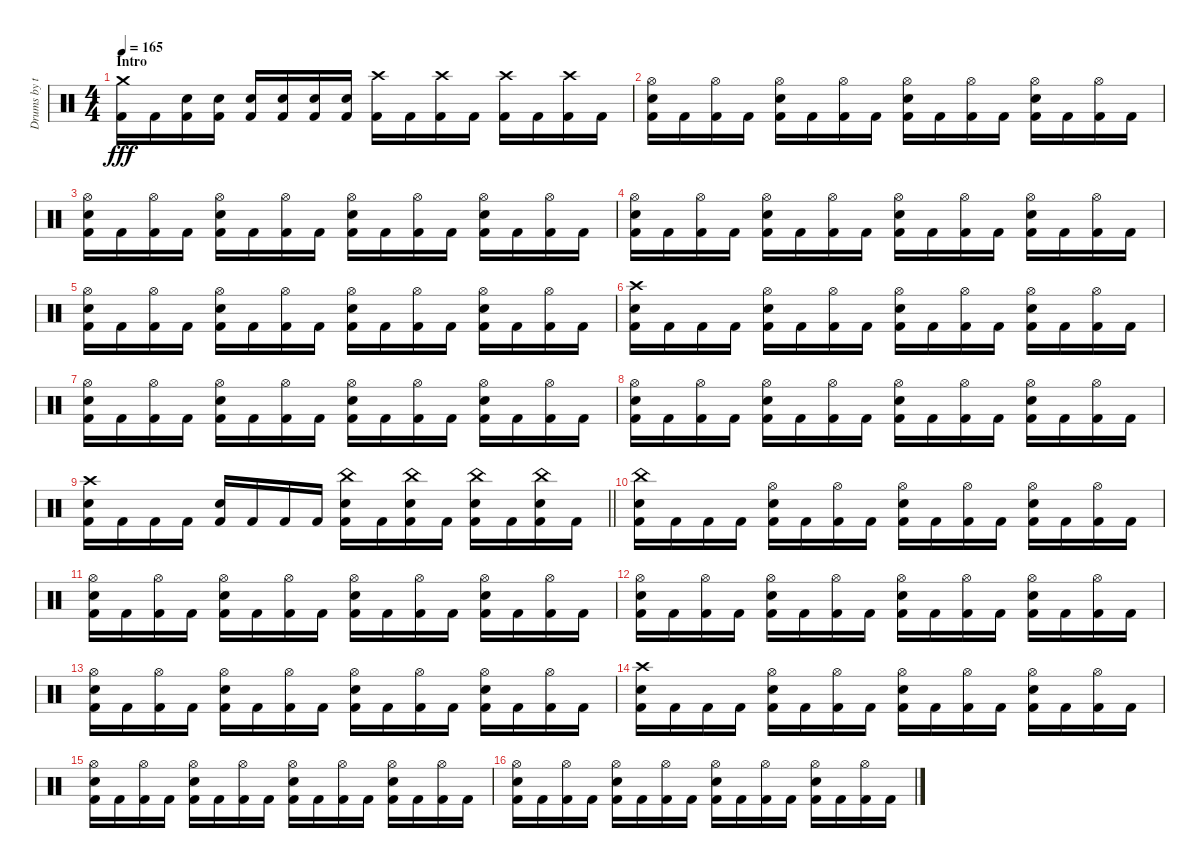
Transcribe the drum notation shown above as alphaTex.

\track ("Drums by terryn0" "Drums by t") {instrument percussion}
\staff {score}
\articulation defaults
\ts (4 4)
\section ("" "Intro")
\tempo 165
\clef neutral
\ks c
("Crash medium (hit)" "Kick (hit) 2").16{dy fff} "Kick (hit) 2".16 ("Electric Snare (hit)" "Kick (hit) 2").16 ("Electric Snare (hit)" "Kick (hit) 2").16 ("Electric Snare (hit)" "Kick (hit) 2").16 ("Electric Snare (hit)" "Kick (hit) 2").16 ("Electric Snare (hit)" "Kick (hit) 2").16 ("Electric Snare (hit)" "Kick (hit) 2").16 ("Crash high (hit)" "Kick (hit) 2").16 "Kick (hit) 2".16 ("Crash high (hit)" "Kick (hit) 2").16 "Kick (hit) 2".16 ("Crash high (hit)" "Kick (hit) 2").16 "Kick (hit) 2".16 ("Crash high (hit)" "Kick (hit) 2").16 "Kick (hit) 2".16 |
("Hi-Hat (open)" "Electric Snare (hit)" "Kick (hit) 2").16 "Kick (hit) 2".16 ("Hi-Hat (open)" "Kick (hit) 2").16 "Kick (hit) 2".16 ("Hi-Hat (open)" "Electric Snare (hit)" "Kick (hit) 2").16 "Kick (hit) 2".16 ("Hi-Hat (open)" "Kick (hit) 2").16 "Kick (hit) 2".16 ("Hi-Hat (open)" "Electric Snare (hit)" "Kick (hit) 2").16 "Kick (hit) 2".16 ("Hi-Hat (open)" "Kick (hit) 2").16 "Kick (hit) 2".16 ("Hi-Hat (open)" "Electric Snare (hit)" "Kick (hit) 2").16 "Kick (hit) 2".16 ("Hi-Hat (open)" "Kick (hit) 2").16 "Kick (hit) 2".16 |
("Hi-Hat (open)" "Electric Snare (hit)" "Kick (hit) 2").16 "Kick (hit) 2".16 ("Hi-Hat (open)" "Kick (hit) 2").16 "Kick (hit) 2".16 ("Hi-Hat (open)" "Electric Snare (hit)" "Kick (hit) 2").16 "Kick (hit) 2".16 ("Hi-Hat (open)" "Kick (hit) 2").16 "Kick (hit) 2".16 ("Hi-Hat (open)" "Electric Snare (hit)" "Kick (hit) 2").16 "Kick (hit) 2".16 ("Hi-Hat (open)" "Kick (hit) 2").16 "Kick (hit) 2".16 ("Hi-Hat (open)" "Electric Snare (hit)" "Kick (hit) 2").16 "Kick (hit) 2".16 ("Hi-Hat (open)" "Kick (hit) 2").16 "Kick (hit) 2".16 |
("Hi-Hat (open)" "Electric Snare (hit)" "Kick (hit) 2").16 "Kick (hit) 2".16 ("Hi-Hat (open)" "Kick (hit) 2").16 "Kick (hit) 2".16 ("Hi-Hat (open)" "Electric Snare (hit)" "Kick (hit) 2").16 "Kick (hit) 2".16 ("Hi-Hat (open)" "Kick (hit) 2").16 "Kick (hit) 2".16 ("Hi-Hat (open)" "Electric Snare (hit)" "Kick (hit) 2").16 "Kick (hit) 2".16 ("Hi-Hat (open)" "Kick (hit) 2").16 "Kick (hit) 2".16 ("Hi-Hat (open)" "Electric Snare (hit)" "Kick (hit) 2").16 "Kick (hit) 2".16 ("Hi-Hat (open)" "Kick (hit) 2").16 "Kick (hit) 2".16 |
("Hi-Hat (open)" "Electric Snare (hit)" "Kick (hit) 2").16 "Kick (hit) 2".16 ("Hi-Hat (open)" "Kick (hit) 2").16 "Kick (hit) 2".16 ("Hi-Hat (open)" "Electric Snare (hit)" "Kick (hit) 2").16 "Kick (hit) 2".16 ("Hi-Hat (open)" "Kick (hit) 2").16 "Kick (hit) 2".16 ("Hi-Hat (open)" "Electric Snare (hit)" "Kick (hit) 2").16 "Kick (hit) 2".16 ("Hi-Hat (open)" "Kick (hit) 2").16 "Kick (hit) 2".16 ("Hi-Hat (open)" "Electric Snare (hit)" "Kick (hit) 2").16 "Kick (hit) 2".16 ("Hi-Hat (open)" "Kick (hit) 2").16 "Kick (hit) 2".16 |
("Crash high (hit)" "Electric Snare (hit)" "Kick (hit) 2").16 "Kick (hit) 2".16 "Kick (hit) 2".16 "Kick (hit) 2".16 ("Hi-Hat (open)" "Electric Snare (hit)" "Kick (hit) 2").16 "Kick (hit) 2".16 ("Hi-Hat (open)" "Kick (hit) 2").16 "Kick (hit) 2".16 ("Hi-Hat (open)" "Electric Snare (hit)" "Kick (hit) 2").16 "Kick (hit) 2".16 ("Hi-Hat (open)" "Kick (hit) 2").16 "Kick (hit) 2".16 ("Hi-Hat (open)" "Electric Snare (hit)" "Kick (hit) 2").16 "Kick (hit) 2".16 ("Hi-Hat (open)" "Kick (hit) 2").16 "Kick (hit) 2".16 |
("Hi-Hat (open)" "Electric Snare (hit)" "Kick (hit) 2").16 "Kick (hit) 2".16 ("Hi-Hat (open)" "Kick (hit) 2").16 "Kick (hit) 2".16 ("Hi-Hat (open)" "Electric Snare (hit)" "Kick (hit) 2").16 "Kick (hit) 2".16 ("Hi-Hat (open)" "Kick (hit) 2").16 "Kick (hit) 2".16 ("Hi-Hat (open)" "Electric Snare (hit)" "Kick (hit) 2").16 "Kick (hit) 2".16 ("Hi-Hat (open)" "Kick (hit) 2").16 "Kick (hit) 2".16 ("Hi-Hat (open)" "Electric Snare (hit)" "Kick (hit) 2").16 "Kick (hit) 2".16 ("Hi-Hat (open)" "Kick (hit) 2").16 "Kick (hit) 2".16 |
("Hi-Hat (open)" "Electric Snare (hit)" "Kick (hit) 2").16 "Kick (hit) 2".16 ("Hi-Hat (open)" "Kick (hit) 2").16 "Kick (hit) 2".16 ("Hi-Hat (open)" "Electric Snare (hit)" "Kick (hit) 2").16 "Kick (hit) 2".16 ("Hi-Hat (open)" "Kick (hit) 2").16 "Kick (hit) 2".16 ("Hi-Hat (open)" "Electric Snare (hit)" "Kick (hit) 2").16 "Kick (hit) 2".16 ("Hi-Hat (open)" "Kick (hit) 2").16 "Kick (hit) 2".16 ("Hi-Hat (open)" "Electric Snare (hit)" "Kick (hit) 2").16 "Kick (hit) 2".16 ("Hi-Hat (open)" "Kick (hit) 2").16 "Kick (hit) 2".16 |
\barLineRight lightlight
("Crash high (hit)" "Electric Snare (hit)" "Kick (hit) 2").16 "Kick (hit) 2".16 "Kick (hit) 2".16 "Kick (hit) 2".16 ("Electric Snare (hit)" "Kick (hit) 2").16 "Kick (hit) 2".16 "Kick (hit) 2".16 "Kick (hit) 2".16 ("China (hit)" "Electric Snare (hit)" "Kick (hit) 2").16 "Kick (hit) 2".16 ("China (hit)" "Electric Snare (hit)" "Kick (hit) 2").16 "Kick (hit) 2".16 ("China (hit)" "Electric Snare (hit)" "Kick (hit) 2").16 "Kick (hit) 2".16 ("China (hit)" "Electric Snare (hit)" "Kick (hit) 2").16 "Kick (hit) 2".16 |
("China (hit)" "Electric Snare (hit)" "Kick (hit) 2").16 "Kick (hit) 2".16 "Kick (hit) 2".16 "Kick (hit) 2".16 ("Hi-Hat (open)" "Electric Snare (hit)" "Kick (hit) 2").16 "Kick (hit) 2".16 ("Hi-Hat (open)" "Kick (hit) 2").16 "Kick (hit) 2".16 ("Hi-Hat (open)" "Electric Snare (hit)" "Kick (hit) 2").16 "Kick (hit) 2".16 ("Hi-Hat (open)" "Kick (hit) 2").16 "Kick (hit) 2".16 ("Hi-Hat (open)" "Electric Snare (hit)" "Kick (hit) 2").16 "Kick (hit) 2".16 ("Hi-Hat (open)" "Kick (hit) 2").16 "Kick (hit) 2".16 |
("Hi-Hat (open)" "Electric Snare (hit)" "Kick (hit) 2").16 "Kick (hit) 2".16 ("Hi-Hat (open)" "Kick (hit) 2").16 "Kick (hit) 2".16 ("Hi-Hat (open)" "Electric Snare (hit)" "Kick (hit) 2").16 "Kick (hit) 2".16 ("Hi-Hat (open)" "Kick (hit) 2").16 "Kick (hit) 2".16 ("Hi-Hat (open)" "Electric Snare (hit)" "Kick (hit) 2").16 "Kick (hit) 2".16 ("Hi-Hat (open)" "Kick (hit) 2").16 "Kick (hit) 2".16 ("Hi-Hat (open)" "Electric Snare (hit)" "Kick (hit) 2").16 "Kick (hit) 2".16 ("Hi-Hat (open)" "Kick (hit) 2").16 "Kick (hit) 2".16 |
("Hi-Hat (open)" "Electric Snare (hit)" "Kick (hit) 2").16 "Kick (hit) 2".16 ("Hi-Hat (open)" "Kick (hit) 2").16 "Kick (hit) 2".16 ("Hi-Hat (open)" "Electric Snare (hit)" "Kick (hit) 2").16 "Kick (hit) 2".16 ("Hi-Hat (open)" "Kick (hit) 2").16 "Kick (hit) 2".16 ("Hi-Hat (open)" "Electric Snare (hit)" "Kick (hit) 2").16 "Kick (hit) 2".16 ("Hi-Hat (open)" "Kick (hit) 2").16 "Kick (hit) 2".16 ("Hi-Hat (open)" "Electric Snare (hit)" "Kick (hit) 2").16 "Kick (hit) 2".16 ("Hi-Hat (open)" "Kick (hit) 2").16 "Kick (hit) 2".16 |
("Hi-Hat (open)" "Electric Snare (hit)" "Kick (hit) 2").16 "Kick (hit) 2".16 ("Hi-Hat (open)" "Kick (hit) 2").16 "Kick (hit) 2".16 ("Hi-Hat (open)" "Electric Snare (hit)" "Kick (hit) 2").16 "Kick (hit) 2".16 ("Hi-Hat (open)" "Kick (hit) 2").16 "Kick (hit) 2".16 ("Hi-Hat (open)" "Electric Snare (hit)" "Kick (hit) 2").16 "Kick (hit) 2".16 ("Hi-Hat (open)" "Kick (hit) 2").16 "Kick (hit) 2".16 ("Hi-Hat (open)" "Electric Snare (hit)" "Kick (hit) 2").16 "Kick (hit) 2".16 ("Hi-Hat (open)" "Kick (hit) 2").16 "Kick (hit) 2".16 |
("Crash high (hit)" "Electric Snare (hit)" "Kick (hit) 2").16 "Kick (hit) 2".16 "Kick (hit) 2".16 "Kick (hit) 2".16 ("Hi-Hat (open)" "Electric Snare (hit)" "Kick (hit) 2").16 "Kick (hit) 2".16 ("Hi-Hat (open)" "Kick (hit) 2").16 "Kick (hit) 2".16 ("Hi-Hat (open)" "Electric Snare (hit)" "Kick (hit) 2").16 "Kick (hit) 2".16 ("Hi-Hat (open)" "Kick (hit) 2").16 "Kick (hit) 2".16 ("Hi-Hat (open)" "Electric Snare (hit)" "Kick (hit) 2").16 "Kick (hit) 2".16 ("Hi-Hat (open)" "Kick (hit) 2").16 "Kick (hit) 2".16 |
("Hi-Hat (open)" "Electric Snare (hit)" "Kick (hit) 2").16 "Kick (hit) 2".16 ("Hi-Hat (open)" "Kick (hit) 2").16 "Kick (hit) 2".16 ("Hi-Hat (open)" "Electric Snare (hit)" "Kick (hit) 2").16 "Kick (hit) 2".16 ("Hi-Hat (open)" "Kick (hit) 2").16 "Kick (hit) 2".16 ("Hi-Hat (open)" "Electric Snare (hit)" "Kick (hit) 2").16 "Kick (hit) 2".16 ("Hi-Hat (open)" "Kick (hit) 2").16 "Kick (hit) 2".16 ("Hi-Hat (open)" "Electric Snare (hit)" "Kick (hit) 2").16 "Kick (hit) 2".16 ("Hi-Hat (open)" "Kick (hit) 2").16 "Kick (hit) 2".16 |
("Hi-Hat (open)" "Electric Snare (hit)" "Kick (hit) 2").16 "Kick (hit) 2".16 ("Hi-Hat (open)" "Kick (hit) 2").16 "Kick (hit) 2".16 ("Hi-Hat (open)" "Electric Snare (hit)" "Kick (hit) 2").16 "Kick (hit) 2".16 ("Hi-Hat (open)" "Kick (hit) 2").16 "Kick (hit) 2".16 ("Hi-Hat (open)" "Electric Snare (hit)" "Kick (hit) 2").16 "Kick (hit) 2".16 ("Hi-Hat (open)" "Kick (hit) 2").16 "Kick (hit) 2".16 ("Hi-Hat (open)" "Electric Snare (hit)" "Kick (hit) 2").16 "Kick (hit) 2".16 ("Hi-Hat (open)" "Kick (hit) 2").16 "Kick (hit) 2".16
